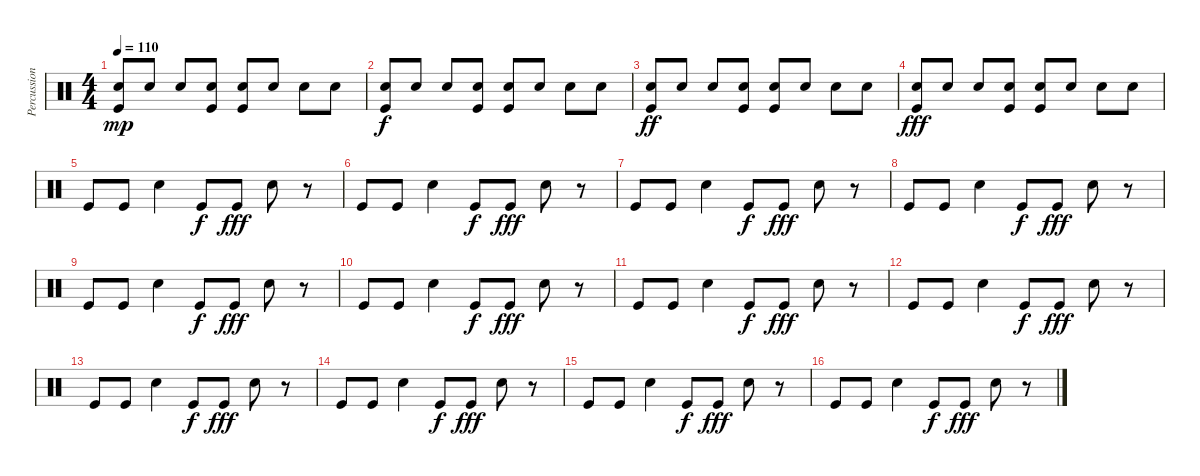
\track ("Percussion" "Percussion") {instrument percussion}
\staff {score}
\articulation defaults
\ts (4 4)
\tempo 110
\clef neutral
\ks c
("Kick (hit)" "Snare (hit) 2").8{dy mp} "Snare (hit) 2".8 "Snare (hit) 2".8 ("Kick (hit)" "Snare (hit) 2").8 ("Kick (hit)" "Snare (hit) 2").8 "Snare (hit) 2".8 "Snare (hit) 2".8 "Snare (hit) 2".8 |
("Kick (hit)" "Snare (hit) 2").8{dy f} "Snare (hit) 2".8 "Snare (hit) 2".8 ("Kick (hit)" "Snare (hit) 2").8 ("Kick (hit)" "Snare (hit) 2").8 "Snare (hit) 2".8 "Snare (hit) 2".8 "Snare (hit) 2".8 |
("Kick (hit)" "Snare (hit) 2").8{dy ff} "Snare (hit) 2".8 "Snare (hit) 2".8 ("Kick (hit)" "Snare (hit) 2").8 ("Kick (hit)" "Snare (hit) 2").8 "Snare (hit) 2".8 "Snare (hit) 2".8 "Snare (hit) 2".8 |
("Kick (hit)" "Snare (hit) 2").8{dy fff} "Snare (hit) 2".8 "Snare (hit) 2".8 ("Kick (hit)" "Snare (hit) 2").8 ("Kick (hit)" "Snare (hit) 2").8 "Snare (hit) 2".8 "Snare (hit) 2".8 "Snare (hit) 2".8 |
"Kick (hit)".8 "Kick (hit)".8 "Snare (hit) 2".4 "Kick (hit)".8{dy f} "Kick (hit)".8{dy fff} "Snare (hit) 2".8 r.8 |
"Kick (hit)".8 "Kick (hit)".8 "Snare (hit) 2".4 "Kick (hit)".8{dy f} "Kick (hit)".8{dy fff} "Snare (hit) 2".8 r.8 |
"Kick (hit)".8 "Kick (hit)".8 "Snare (hit) 2".4 "Kick (hit)".8{dy f} "Kick (hit)".8{dy fff} "Snare (hit) 2".8 r.8 |
"Kick (hit)".8 "Kick (hit)".8 "Snare (hit) 2".4 "Kick (hit)".8{dy f} "Kick (hit)".8{dy fff} "Snare (hit) 2".8 r.8 |
"Kick (hit)".8 "Kick (hit)".8 "Snare (hit) 2".4 "Kick (hit)".8{dy f} "Kick (hit)".8{dy fff} "Snare (hit) 2".8 r.8 |
"Kick (hit)".8 "Kick (hit)".8 "Snare (hit) 2".4 "Kick (hit)".8{dy f} "Kick (hit)".8{dy fff} "Snare (hit) 2".8 r.8 |
"Kick (hit)".8 "Kick (hit)".8 "Snare (hit) 2".4 "Kick (hit)".8{dy f} "Kick (hit)".8{dy fff} "Snare (hit) 2".8 r.8 |
"Kick (hit)".8 "Kick (hit)".8 "Snare (hit) 2".4 "Kick (hit)".8{dy f} "Kick (hit)".8{dy fff} "Snare (hit) 2".8 r.8 |
"Kick (hit)".8 "Kick (hit)".8 "Snare (hit) 2".4 "Kick (hit)".8{dy f} "Kick (hit)".8{dy fff} "Snare (hit) 2".8 r.8 |
"Kick (hit)".8 "Kick (hit)".8 "Snare (hit) 2".4 "Kick (hit)".8{dy f} "Kick (hit)".8{dy fff} "Snare (hit) 2".8 r.8 |
"Kick (hit)".8 "Kick (hit)".8 "Snare (hit) 2".4 "Kick (hit)".8{dy f} "Kick (hit)".8{dy fff} "Snare (hit) 2".8 r.8 |
"Kick (hit)".8 "Kick (hit)".8 "Snare (hit) 2".4 "Kick (hit)".8{dy f} "Kick (hit)".8{dy fff} "Snare (hit) 2".8 r.8
